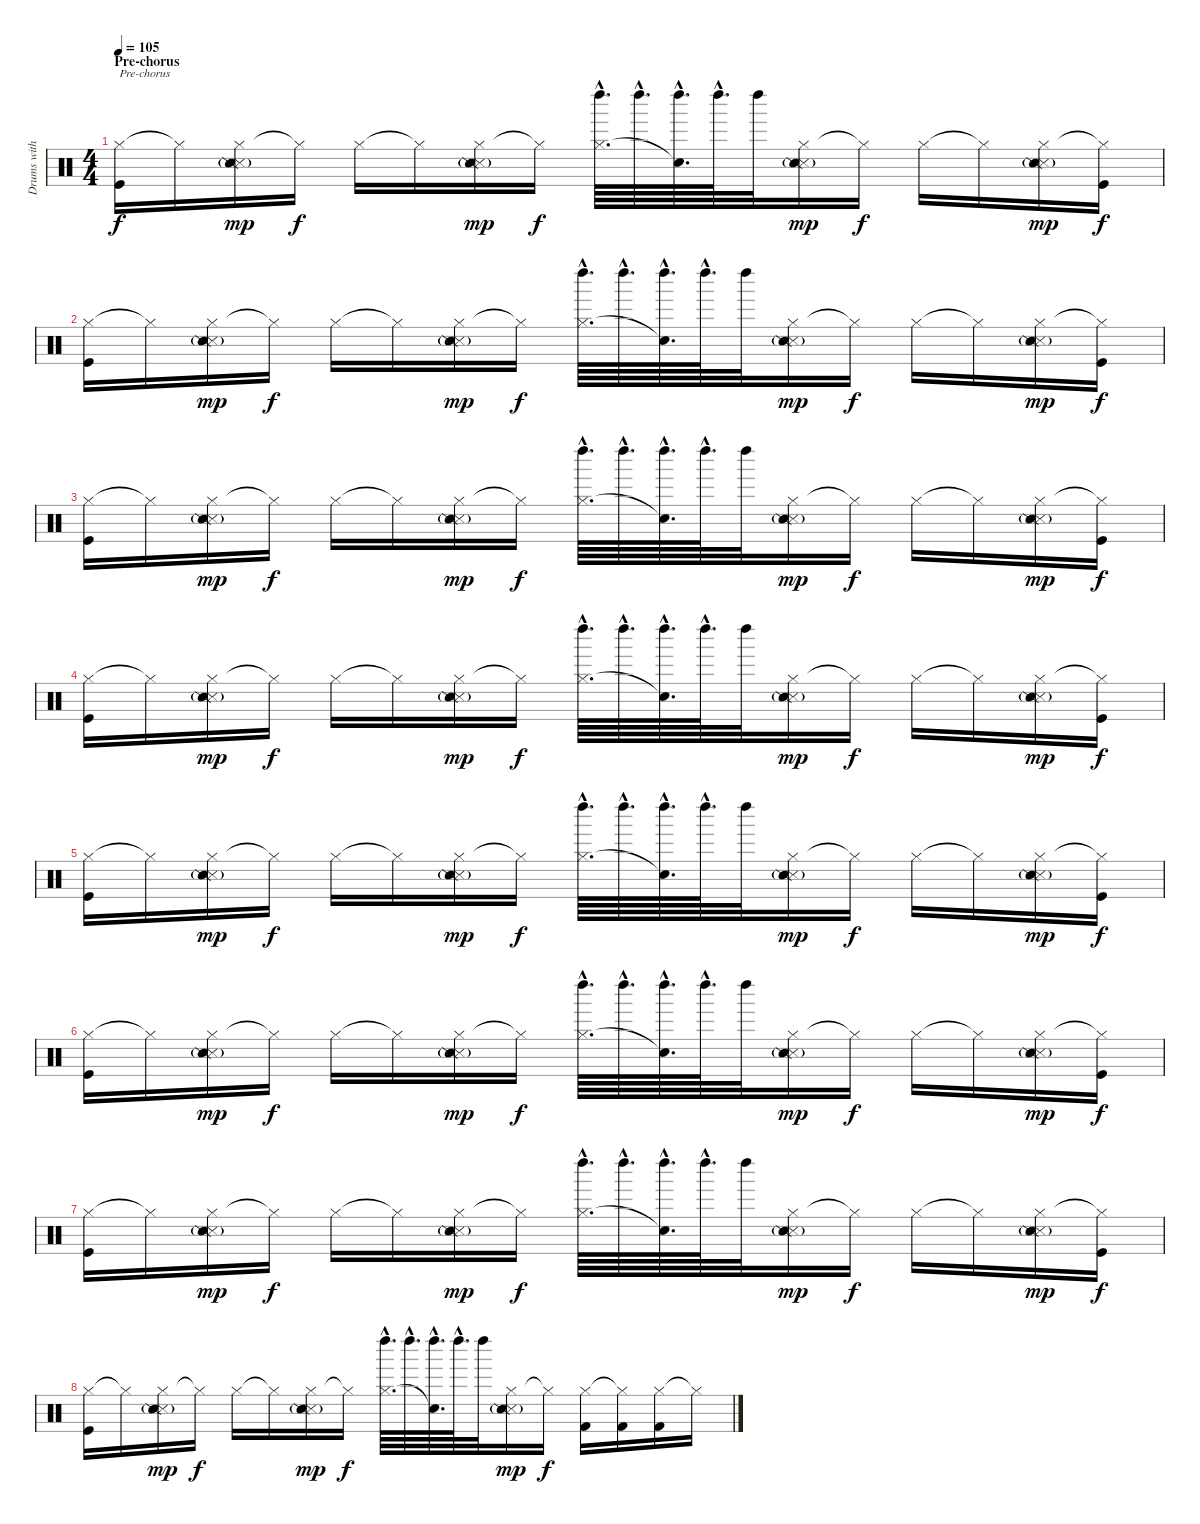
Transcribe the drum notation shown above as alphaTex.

\track ("Drums with sampled drums (Rob and Joe)" "Drums with") {instrument percussion}
\staff {score}
\articulation defaults
\ts (4 4)
\section ("" "Pre-chorus")
\tempo 105
\clef neutral
\ks c
("Hi-Hat (closed)" "Kick (hit)").16{txt "Pre-chorus" dy f} "Hi-Hat (closed)"{t}.16 ("Hi-Hat (closed)" "Snare (side stick) 3" "Snare (side stick) 2"{g}).16{dy mp} "Hi-Hat (closed)"{t}.16{dy f} "Hi-Hat (closed)".16 "Hi-Hat (closed)"{t}.16 ("Hi-Hat (closed)" "Snare (side stick) 3" "Snare (side stick) 2"{g}).16{dy mp} "Hi-Hat (closed)"{t}.16{dy f} ("Left Maraca (hit)"{hac} "Hi-Hat (closed)"{hac}).64{d} "Left Maraca (hit)"{hac}.64{d} ("Left Maraca (hit)"{hac} "Snare (hit)"{hac t}).64{d} "Left Maraca (hit)"{hac}.64{d} "Left Maraca (hit)".32 ("Hi-Hat (closed)" "Snare (side stick) 3" "Snare (side stick) 2"{g}).16{dy mp} "Hi-Hat (closed)"{t}.16{dy f} "Hi-Hat (closed)".16 "Hi-Hat (closed)"{t}.16 ("Hi-Hat (closed)" "Snare (side stick) 3" "Snare (side stick) 2"{g}).16{dy mp} ("Hi-Hat (closed)"{t} "Kick (hit)").16{dy f} |
("Hi-Hat (closed)" "Kick (hit)").16 "Hi-Hat (closed)"{t}.16 ("Hi-Hat (closed)" "Snare (side stick) 3" "Snare (side stick) 2"{g}).16{dy mp} "Hi-Hat (closed)"{t}.16{dy f} "Hi-Hat (closed)".16 "Hi-Hat (closed)"{t}.16 ("Hi-Hat (closed)" "Snare (side stick) 3" "Snare (side stick) 2"{g}).16{dy mp} "Hi-Hat (closed)"{t}.16{dy f} ("Left Maraca (hit)"{hac} "Hi-Hat (closed)"{hac}).64{d} "Left Maraca (hit)"{hac}.64{d} ("Left Maraca (hit)"{hac} "Snare (hit)"{hac t}).64{d} "Left Maraca (hit)"{hac}.64{d} "Left Maraca (hit)".32 ("Hi-Hat (closed)" "Snare (side stick) 3" "Snare (side stick) 2"{g}).16{dy mp} "Hi-Hat (closed)"{t}.16{dy f} "Hi-Hat (closed)".16 "Hi-Hat (closed)"{t}.16 ("Hi-Hat (closed)" "Snare (side stick) 3" "Snare (side stick) 2"{g}).16{dy mp} ("Hi-Hat (closed)"{t} "Kick (hit)").16{dy f} |
("Hi-Hat (closed)" "Kick (hit)").16 "Hi-Hat (closed)"{t}.16 ("Hi-Hat (closed)" "Snare (side stick) 3" "Snare (side stick) 2"{g}).16{dy mp} "Hi-Hat (closed)"{t}.16{dy f} "Hi-Hat (closed)".16 "Hi-Hat (closed)"{t}.16 ("Hi-Hat (closed)" "Snare (side stick) 3" "Snare (side stick) 2"{g}).16{dy mp} "Hi-Hat (closed)"{t}.16{dy f} ("Left Maraca (hit)"{hac} "Hi-Hat (closed)"{hac}).64{d} "Left Maraca (hit)"{hac}.64{d} ("Left Maraca (hit)"{hac} "Snare (hit)"{hac t}).64{d} "Left Maraca (hit)"{hac}.64{d} "Left Maraca (hit)".32 ("Hi-Hat (closed)" "Snare (side stick) 3" "Snare (side stick) 2"{g}).16{dy mp} "Hi-Hat (closed)"{t}.16{dy f} "Hi-Hat (closed)".16 "Hi-Hat (closed)"{t}.16 ("Hi-Hat (closed)" "Snare (side stick) 3" "Snare (side stick) 2"{g}).16{dy mp} ("Hi-Hat (closed)"{t} "Kick (hit)").16{dy f} |
("Hi-Hat (closed)" "Kick (hit)").16 "Hi-Hat (closed)"{t}.16 ("Hi-Hat (closed)" "Snare (side stick) 3" "Snare (side stick) 2"{g}).16{dy mp} "Hi-Hat (closed)"{t}.16{dy f} "Hi-Hat (closed)".16 "Hi-Hat (closed)"{t}.16 ("Hi-Hat (closed)" "Snare (side stick) 3" "Snare (side stick) 2"{g}).16{dy mp} "Hi-Hat (closed)"{t}.16{dy f} ("Left Maraca (hit)"{hac} "Hi-Hat (closed)"{hac}).64{d} "Left Maraca (hit)"{hac}.64{d} ("Left Maraca (hit)"{hac} "Snare (hit)"{hac t}).64{d} "Left Maraca (hit)"{hac}.64{d} "Left Maraca (hit)".32 ("Hi-Hat (closed)" "Snare (side stick) 3" "Snare (side stick) 2"{g}).16{dy mp} "Hi-Hat (closed)"{t}.16{dy f} "Hi-Hat (closed)".16 "Hi-Hat (closed)"{t}.16 ("Hi-Hat (closed)" "Snare (side stick) 3" "Snare (side stick) 2"{g}).16{dy mp} ("Hi-Hat (closed)"{t} "Kick (hit)").16{dy f} |
("Hi-Hat (closed)" "Kick (hit)").16 "Hi-Hat (closed)"{t}.16 ("Hi-Hat (closed)" "Snare (side stick) 3" "Snare (side stick) 2"{g}).16{dy mp} "Hi-Hat (closed)"{t}.16{dy f} "Hi-Hat (closed)".16 "Hi-Hat (closed)"{t}.16 ("Hi-Hat (closed)" "Snare (side stick) 3" "Snare (side stick) 2"{g}).16{dy mp} "Hi-Hat (closed)"{t}.16{dy f} ("Left Maraca (hit)"{hac} "Hi-Hat (closed)"{hac}).64{d} "Left Maraca (hit)"{hac}.64{d} ("Left Maraca (hit)"{hac} "Snare (hit)"{hac t}).64{d} "Left Maraca (hit)"{hac}.64{d} "Left Maraca (hit)".32 ("Hi-Hat (closed)" "Snare (side stick) 3" "Snare (side stick) 2"{g}).16{dy mp} "Hi-Hat (closed)"{t}.16{dy f} "Hi-Hat (closed)".16 "Hi-Hat (closed)"{t}.16 ("Hi-Hat (closed)" "Snare (side stick) 3" "Snare (side stick) 2"{g}).16{dy mp} ("Hi-Hat (closed)"{t} "Kick (hit)").16{dy f} |
("Hi-Hat (closed)" "Kick (hit)").16 "Hi-Hat (closed)"{t}.16 ("Hi-Hat (closed)" "Snare (side stick) 3" "Snare (side stick) 2"{g}).16{dy mp} "Hi-Hat (closed)"{t}.16{dy f} "Hi-Hat (closed)".16 "Hi-Hat (closed)"{t}.16 ("Hi-Hat (closed)" "Snare (side stick) 3" "Snare (side stick) 2"{g}).16{dy mp} "Hi-Hat (closed)"{t}.16{dy f} ("Left Maraca (hit)"{hac} "Hi-Hat (closed)"{hac}).64{d} "Left Maraca (hit)"{hac}.64{d} ("Left Maraca (hit)"{hac} "Snare (hit)"{hac t}).64{d} "Left Maraca (hit)"{hac}.64{d} "Left Maraca (hit)".32 ("Hi-Hat (closed)" "Snare (side stick) 3" "Snare (side stick) 2"{g}).16{dy mp} "Hi-Hat (closed)"{t}.16{dy f} "Hi-Hat (closed)".16 "Hi-Hat (closed)"{t}.16 ("Hi-Hat (closed)" "Snare (side stick) 3" "Snare (side stick) 2"{g}).16{dy mp} ("Hi-Hat (closed)"{t} "Kick (hit)").16{dy f} |
("Hi-Hat (closed)" "Kick (hit)").16 "Hi-Hat (closed)"{t}.16 ("Hi-Hat (closed)" "Snare (side stick) 3" "Snare (side stick) 2"{g}).16{dy mp} "Hi-Hat (closed)"{t}.16{dy f} "Hi-Hat (closed)".16 "Hi-Hat (closed)"{t}.16 ("Hi-Hat (closed)" "Snare (side stick) 3" "Snare (side stick) 2"{g}).16{dy mp} "Hi-Hat (closed)"{t}.16{dy f} ("Left Maraca (hit)"{hac} "Hi-Hat (closed)"{hac}).64{d} "Left Maraca (hit)"{hac}.64{d} ("Left Maraca (hit)"{hac} "Snare (hit)"{hac t}).64{d} "Left Maraca (hit)"{hac}.64{d} "Left Maraca (hit)".32 ("Hi-Hat (closed)" "Snare (side stick) 3" "Snare (side stick) 2"{g}).16{dy mp} "Hi-Hat (closed)"{t}.16{dy f} "Hi-Hat (closed)".16 "Hi-Hat (closed)"{t}.16 ("Hi-Hat (closed)" "Snare (side stick) 3" "Snare (side stick) 2"{g}).16{dy mp} ("Hi-Hat (closed)"{t} "Kick (hit)").16{dy f} |
("Hi-Hat (closed)" "Kick (hit)").16 "Hi-Hat (closed)"{t}.16 ("Hi-Hat (closed)" "Snare (side stick) 3" "Snare (side stick) 2"{g}).16{dy mp} "Hi-Hat (closed)"{t}.16{dy f} "Hi-Hat (closed)".16 "Hi-Hat (closed)"{t}.16 ("Hi-Hat (closed)" "Snare (side stick) 3" "Snare (side stick) 2"{g}).16{dy mp} "Hi-Hat (closed)"{t}.16{dy f} ("Left Maraca (hit)"{hac} "Hi-Hat (closed)"{hac}).64{d} "Left Maraca (hit)"{hac}.64{d} ("Left Maraca (hit)"{hac} "Snare (hit)"{hac t}).64{d} "Left Maraca (hit)"{hac}.64{d} "Left Maraca (hit)".32 ("Hi-Hat (closed)" "Snare (side stick) 3" "Snare (side stick) 2"{g}).16{dy mp} "Hi-Hat (closed)"{t}.16{dy f} ("Hi-Hat (closed)" "Kick (hit) 2").16 ("Hi-Hat (closed)"{t} "Kick (hit) 2").16 ("Hi-Hat (closed)" "Kick (hit) 2").16 "Hi-Hat (closed)"{t}.16
